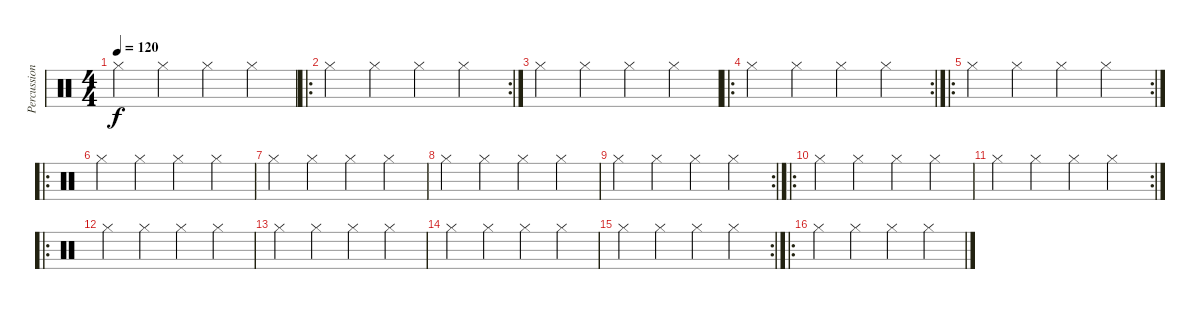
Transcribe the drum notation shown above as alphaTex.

\track ("Percussioni" "Percussion") {instrument percussion}
\staff {score}
\articulation defaults
\ts (4 4)
\tempo 120
\clef neutral
\ks c "Hi-Hat (closed)".4{dy f} "Hi-Hat (closed)".4 "Hi-Hat (closed)".4 "Hi-Hat (closed)".4
|
\ro
\rc 2 "Hi-Hat (closed)".4 "Hi-Hat (closed)".4 "Hi-Hat (closed)".4 "Hi-Hat (closed)".4
|
"Hi-Hat (closed)".4 "Hi-Hat (closed)".4 "Hi-Hat (closed)".4 "Hi-Hat (closed)".4 |
\ro
\rc 2 "Hi-Hat (closed)".4 "Hi-Hat (closed)".4 "Hi-Hat (closed)".4 "Hi-Hat (closed)".4
|
\ro
\rc 2 "Hi-Hat (closed)".4 "Hi-Hat (closed)".4 "Hi-Hat (closed)".4 "Hi-Hat (closed)".4
|
\ro "Hi-Hat (closed)".4 "Hi-Hat (closed)".4 "Hi-Hat (closed)".4 "Hi-Hat (closed)".4
|
"Hi-Hat (closed)".4 "Hi-Hat (closed)".4 "Hi-Hat (closed)".4 "Hi-Hat (closed)".4 |
"Hi-Hat (closed)".4 "Hi-Hat (closed)".4 "Hi-Hat (closed)".4 "Hi-Hat (closed)".4 |
\rc 2 "Hi-Hat (closed)".4 "Hi-Hat (closed)".4 "Hi-Hat (closed)".4 "Hi-Hat (closed)".4
|
\ro "Hi-Hat (closed)".4 "Hi-Hat (closed)".4 "Hi-Hat (closed)".4 "Hi-Hat (closed)".4
|
\rc 2 "Hi-Hat (closed)".4 "Hi-Hat (closed)".4 "Hi-Hat (closed)".4 "Hi-Hat (closed)".4
|
\ro "Hi-Hat (closed)".4 "Hi-Hat (closed)".4 "Hi-Hat (closed)".4 "Hi-Hat (closed)".4
|
"Hi-Hat (closed)".4 "Hi-Hat (closed)".4 "Hi-Hat (closed)".4 "Hi-Hat (closed)".4 |
"Hi-Hat (closed)".4 "Hi-Hat (closed)".4 "Hi-Hat (closed)".4 "Hi-Hat (closed)".4 |
\rc 2 "Hi-Hat (closed)".4 "Hi-Hat (closed)".4 "Hi-Hat (closed)".4 "Hi-Hat (closed)".4
|
\ro "Hi-Hat (closed)".4 "Hi-Hat (closed)".4 "Hi-Hat (closed)".4 "Hi-Hat (closed)".4
